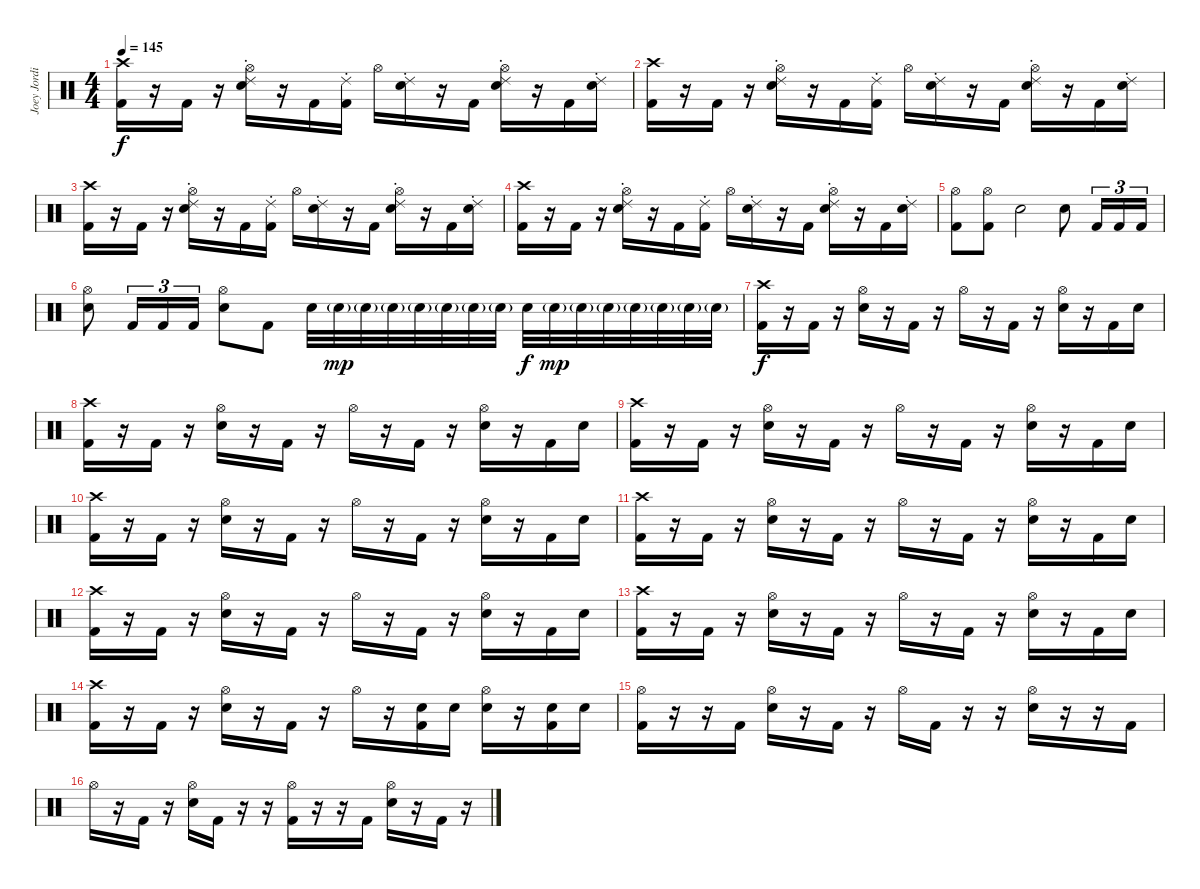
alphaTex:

\track ("Joey Jordison" "Joey Jordi") {instrument percussion}
\staff {score}
\articulation defaults
\ts (4 4)
\tempo 145
\clef neutral
\ks c
("Crash high (hit)" "Kick (hit) 2").16{dy f} r.16 "Kick (hit) 2".16 r.16 ("Hi-Hat (open)" "Ride (choke) 2" "Electric Snare (hit)").16 r.16 "Kick (hit) 2".16 ("Ride (choke) 2" "Kick (hit) 2").16 "Hi-Hat (open)".16 ("Ride (choke) 2" "Electric Snare (hit)").16 r.16 "Kick (hit) 2".16 ("Hi-Hat (open)" "Ride (choke) 2" "Electric Snare (hit)").16 r.16 "Kick (hit) 2".16 ("Ride (choke) 2" "Electric Snare (hit)").16 |
("Crash high (hit)" "Kick (hit) 2").16 r.16 "Kick (hit) 2".16 r.16 ("Hi-Hat (open)" "Ride (choke) 2" "Electric Snare (hit)").16 r.16 "Kick (hit) 2".16 ("Ride (choke) 2" "Kick (hit) 2").16 "Hi-Hat (open)".16 ("Ride (choke) 2" "Electric Snare (hit)").16 r.16 "Kick (hit) 2".16 ("Hi-Hat (open)" "Ride (choke) 2" "Electric Snare (hit)").16 r.16 "Kick (hit) 2".16 ("Ride (choke) 2" "Electric Snare (hit)").16 |
("Crash high (hit)" "Kick (hit) 2").16 r.16 "Kick (hit) 2".16 r.16 ("Hi-Hat (open)" "Ride (choke) 2" "Electric Snare (hit)").16 r.16 "Kick (hit) 2".16 ("Ride (choke) 2" "Kick (hit) 2").16 "Hi-Hat (open)".16 ("Ride (choke) 2" "Electric Snare (hit)").16 r.16 "Kick (hit) 2".16 ("Hi-Hat (open)" "Ride (choke) 2" "Electric Snare (hit)").16 r.16 "Kick (hit) 2".16 ("Ride (choke) 2" "Electric Snare (hit)").16 |
("Crash high (hit)" "Kick (hit) 2").16 r.16 "Kick (hit) 2".16 r.16 ("Hi-Hat (open)" "Ride (choke) 2" "Electric Snare (hit)").16 r.16 "Kick (hit) 2".16 ("Ride (choke) 2" "Kick (hit) 2").16 "Hi-Hat (open)".16 ("Ride (choke) 2" "Electric Snare (hit)").16 r.16 "Kick (hit) 2".16 ("Hi-Hat (open)" "Ride (choke) 2" "Electric Snare (hit)").16 r.16 "Kick (hit) 2".16 ("Ride (choke) 2" "Electric Snare (hit)").16 |
("Hi-Hat (open)" "Kick (hit) 2").8 ("Hi-Hat (open)" "Kick (hit) 2").8 "Electric Snare (hit)".2 "Electric Snare (hit)".8 "Kick (hit) 2".16{tu (3 2)} "Kick (hit) 2".16{tu (3 2)} "Kick (hit) 2".16{tu (3 2)} |
("Hi-Hat (open)" "Electric Snare (hit)").8 "Kick (hit) 2".16{tu (3 2)} "Kick (hit) 2".16{tu (3 2)} "Kick (hit) 2".16{tu (3 2)} ("Hi-Hat (open)" "Electric Snare (hit)").8 "Kick (hit) 2".8 "Electric Snare (hit)".32 "Electric Snare (hit)"{g}.32{dy mp} "Electric Snare (hit)"{g}.32 "Electric Snare (hit)"{g}.32 "Electric Snare (hit)"{g}.32 "Electric Snare (hit)"{g}.32 "Electric Snare (hit)"{g}.32 "Electric Snare (hit)"{g}.32 "Electric Snare (hit)".32{dy f} "Electric Snare (hit)"{g}.32{dy mp} "Electric Snare (hit)"{g}.32 "Electric Snare (hit)"{g}.32 "Electric Snare (hit)"{g}.32 "Electric Snare (hit)"{g}.32 "Electric Snare (hit)"{g}.32 "Electric Snare (hit)"{g}.32 |
("Crash high (hit)" "Kick (hit) 2").16{dy f} r.16 "Kick (hit) 2".16 r.16 ("Hi-Hat (open)" "Electric Snare (hit)").16 r.16 "Kick (hit) 2".16 r.16 "Hi-Hat (open)".16 r.16 "Kick (hit) 2".16 r.16 ("Hi-Hat (open)" "Electric Snare (hit)").16 r.16 "Kick (hit) 2".16 "Electric Snare (hit)".16 |
("Crash high (hit)" "Kick (hit) 2").16 r.16 "Kick (hit) 2".16 r.16 ("Hi-Hat (open)" "Electric Snare (hit)").16 r.16 "Kick (hit) 2".16 r.16 "Hi-Hat (open)".16 r.16 "Kick (hit) 2".16 r.16 ("Hi-Hat (open)" "Electric Snare (hit)").16 r.16 "Kick (hit) 2".16 "Electric Snare (hit)".16 |
("Crash high (hit)" "Kick (hit) 2").16 r.16 "Kick (hit) 2".16 r.16 ("Hi-Hat (open)" "Electric Snare (hit)").16 r.16 "Kick (hit) 2".16 r.16 "Hi-Hat (open)".16 r.16 "Kick (hit) 2".16 r.16 ("Hi-Hat (open)" "Electric Snare (hit)").16 r.16 "Kick (hit) 2".16 "Electric Snare (hit)".16 |
("Crash high (hit)" "Kick (hit) 2").16 r.16 "Kick (hit) 2".16 r.16 ("Hi-Hat (open)" "Electric Snare (hit)").16 r.16 "Kick (hit) 2".16 r.16 "Hi-Hat (open)".16 r.16 "Kick (hit) 2".16 r.16 ("Hi-Hat (open)" "Electric Snare (hit)").16 r.16 "Kick (hit) 2".16 "Electric Snare (hit)".16 |
("Crash high (hit)" "Kick (hit) 2").16 r.16 "Kick (hit) 2".16 r.16 ("Hi-Hat (open)" "Electric Snare (hit)").16 r.16 "Kick (hit) 2".16 r.16 "Hi-Hat (open)".16 r.16 "Kick (hit) 2".16 r.16 ("Hi-Hat (open)" "Electric Snare (hit)").16 r.16 "Kick (hit) 2".16 "Electric Snare (hit)".16 |
("Crash high (hit)" "Kick (hit) 2").16 r.16 "Kick (hit) 2".16 r.16 ("Hi-Hat (open)" "Electric Snare (hit)").16 r.16 "Kick (hit) 2".16 r.16 "Hi-Hat (open)".16 r.16 "Kick (hit) 2".16 r.16 ("Hi-Hat (open)" "Electric Snare (hit)").16 r.16 "Kick (hit) 2".16 "Electric Snare (hit)".16 |
("Crash high (hit)" "Kick (hit) 2").16 r.16 "Kick (hit) 2".16 r.16 ("Hi-Hat (open)" "Electric Snare (hit)").16 r.16 "Kick (hit) 2".16 r.16 "Hi-Hat (open)".16 r.16 "Kick (hit) 2".16 r.16 ("Hi-Hat (open)" "Electric Snare (hit)").16 r.16 "Kick (hit) 2".16 "Electric Snare (hit)".16 |
("Crash high (hit)" "Kick (hit) 2").16 r.16 "Kick (hit) 2".16 r.16 ("Hi-Hat (open)" "Electric Snare (hit)").16 r.16 "Kick (hit) 2".16 r.16 "Hi-Hat (open)".16 r.16 ("Electric Snare (hit)" "Kick (hit) 2").16 "Electric Snare (hit)".16 ("Hi-Hat (open)" "Electric Snare (hit)").16 r.16 ("Electric Snare (hit)" "Kick (hit) 2").16 "Electric Snare (hit)".16 |
("Hi-Hat (open)" "Kick (hit) 2").16 r.16 r.16 "Kick (hit) 2".16 ("Hi-Hat (open)" "Electric Snare (hit)").16 r.16 "Kick (hit) 2".16 r.16 "Hi-Hat (open)".16 "Kick (hit) 2".16 r.16 r.16 ("Hi-Hat (open)" "Electric Snare (hit)").16 r.16 r.16 "Kick (hit) 2".16 |
"Hi-Hat (open)".16 r.16 "Kick (hit) 2".16 r.16 ("Hi-Hat (open)" "Electric Snare (hit)").16 "Kick (hit) 2".16 r.16 r.16 ("Hi-Hat (open)" "Kick (hit) 2").16 r.16 r.16 "Kick (hit) 2".16 ("Hi-Hat (open)" "Electric Snare (hit)").16 r.16 "Kick (hit) 2".16 r.16
